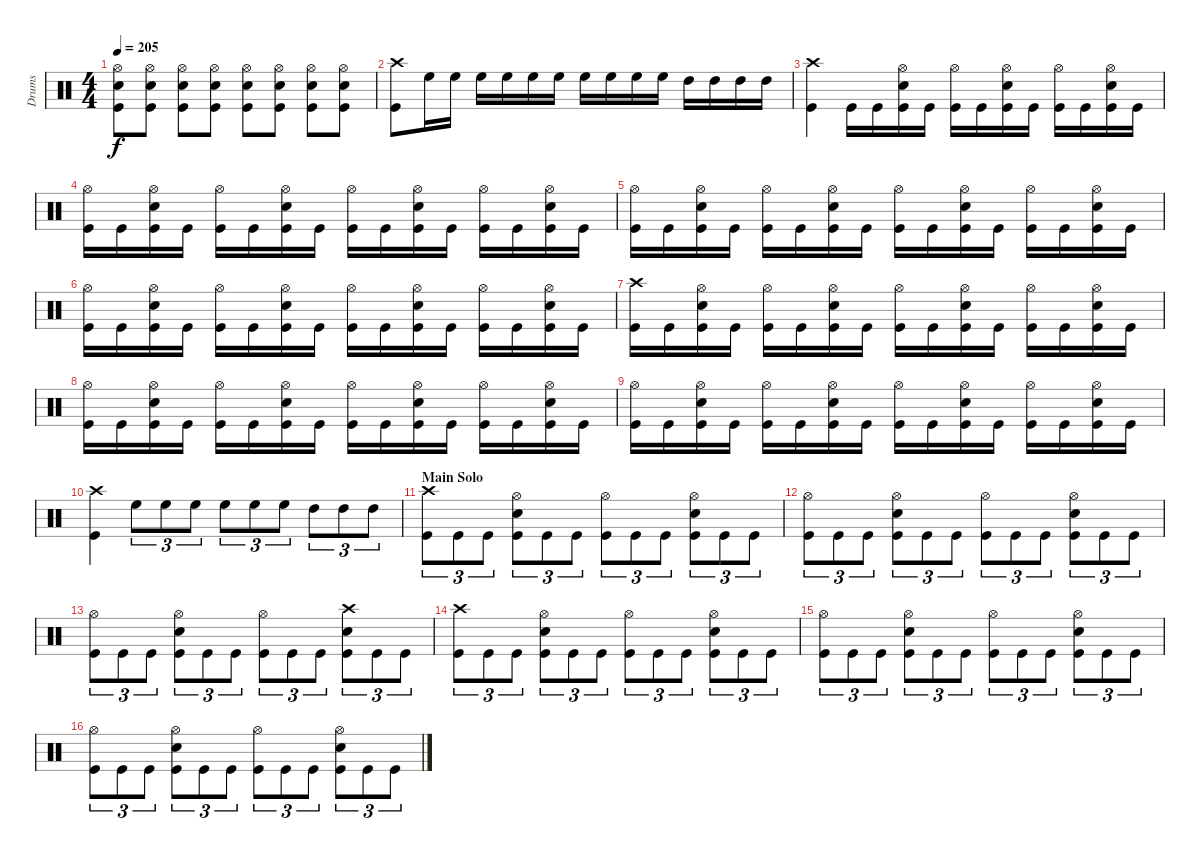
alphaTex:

\track ("Drums" "Drums") {instrument percussion}
\staff {score}
\articulation defaults
\ts (4 4)
\tempo 205
\clef neutral
\ks c
("Hi-Hat (open)" "Snare (hit) 2" "Kick (hit)").8{dy f} ("Hi-Hat (open)" "Snare (hit) 2" "Kick (hit)").8 ("Hi-Hat (open)" "Snare (hit) 2" "Kick (hit)").8 ("Hi-Hat (open)" "Snare (hit) 2" "Kick (hit)").8 ("Hi-Hat (open)" "Snare (hit) 2" "Kick (hit)").8 ("Hi-Hat (open)" "Snare (hit) 2" "Kick (hit)").8 ("Hi-Hat (open)" "Snare (hit) 2" "Kick (hit)").8 ("Hi-Hat (open)" "Snare (hit) 2" "Kick (hit)").8 |
("Crash high (hit)" "Kick (hit)").8 "High Floor Tom (hit)".16 "High Floor Tom (hit)".16 "High Floor Tom (hit)".16 "High Floor Tom (hit)".16 "High Floor Tom (hit)".16 "High Floor Tom (hit)".16 "High Floor Tom (hit)".16 "High Floor Tom (hit)".16 "High Floor Tom (hit)".16 "High Floor Tom (hit)".16 "High Tom (hit)".16 "High Tom (hit)".16 "High Tom (hit)".16 "High Tom (hit)".16 |
("Crash high (hit)" "Kick (hit)").4 "Kick (hit)".16 "Kick (hit)".16 ("Hi-Hat (open)" "Snare (hit) 2" "Kick (hit)").16 "Kick (hit)".16 ("Hi-Hat (open)" "Kick (hit)").16 "Kick (hit)".16 ("Hi-Hat (open)" "Snare (hit) 2" "Kick (hit)").16 "Kick (hit)".16 ("Hi-Hat (open)" "Kick (hit)").16 "Kick (hit)".16 ("Hi-Hat (open)" "Snare (hit) 2" "Kick (hit)").16 "Kick (hit)".16 |
("Hi-Hat (open)" "Kick (hit)").16 "Kick (hit)".16 ("Hi-Hat (open)" "Snare (hit) 2" "Kick (hit)").16 "Kick (hit)".16 ("Hi-Hat (open)" "Kick (hit)").16 "Kick (hit)".16 ("Hi-Hat (open)" "Snare (hit) 2" "Kick (hit)").16 "Kick (hit)".16 ("Hi-Hat (open)" "Kick (hit)").16 "Kick (hit)".16 ("Hi-Hat (open)" "Snare (hit) 2" "Kick (hit)").16 "Kick (hit)".16 ("Hi-Hat (open)" "Kick (hit)").16 "Kick (hit)".16 ("Hi-Hat (open)" "Snare (hit) 2" "Kick (hit)").16 "Kick (hit)".16 |
("Hi-Hat (open)" "Kick (hit)").16 "Kick (hit)".16 ("Hi-Hat (open)" "Snare (hit) 2" "Kick (hit)").16 "Kick (hit)".16 ("Hi-Hat (open)" "Kick (hit)").16 "Kick (hit)".16 ("Hi-Hat (open)" "Snare (hit) 2" "Kick (hit)").16 "Kick (hit)".16 ("Hi-Hat (open)" "Kick (hit)").16 "Kick (hit)".16 ("Hi-Hat (open)" "Snare (hit) 2" "Kick (hit)").16 "Kick (hit)".16 ("Hi-Hat (open)" "Kick (hit)").16 "Kick (hit)".16 ("Hi-Hat (open)" "Snare (hit) 2" "Kick (hit)").16 "Kick (hit)".16 |
("Hi-Hat (open)" "Kick (hit)").16 "Kick (hit)".16 ("Hi-Hat (open)" "Snare (hit) 2" "Kick (hit)").16 "Kick (hit)".16 ("Hi-Hat (open)" "Kick (hit)").16 "Kick (hit)".16 ("Hi-Hat (open)" "Snare (hit) 2" "Kick (hit)").16 "Kick (hit)".16 ("Hi-Hat (open)" "Kick (hit)").16 "Kick (hit)".16 ("Hi-Hat (open)" "Snare (hit) 2" "Kick (hit)").16 "Kick (hit)".16 ("Hi-Hat (open)" "Kick (hit)").16 "Kick (hit)".16 ("Hi-Hat (open)" "Snare (hit) 2" "Kick (hit)").16 "Kick (hit)".16 |
("Crash high (hit)" "Kick (hit)").16 "Kick (hit)".16 ("Hi-Hat (open)" "Snare (hit) 2" "Kick (hit)").16 "Kick (hit)".16 ("Hi-Hat (open)" "Kick (hit)").16 "Kick (hit)".16 ("Hi-Hat (open)" "Snare (hit) 2" "Kick (hit)").16 "Kick (hit)".16 ("Hi-Hat (open)" "Kick (hit)").16 "Kick (hit)".16 ("Hi-Hat (open)" "Snare (hit) 2" "Kick (hit)").16 "Kick (hit)".16 ("Hi-Hat (open)" "Kick (hit)").16 "Kick (hit)".16 ("Hi-Hat (open)" "Snare (hit) 2" "Kick (hit)").16 "Kick (hit)".16 |
("Hi-Hat (open)" "Kick (hit)").16 "Kick (hit)".16 ("Hi-Hat (open)" "Snare (hit) 2" "Kick (hit)").16 "Kick (hit)".16 ("Hi-Hat (open)" "Kick (hit)").16 "Kick (hit)".16 ("Hi-Hat (open)" "Snare (hit) 2" "Kick (hit)").16 "Kick (hit)".16 ("Hi-Hat (open)" "Kick (hit)").16 "Kick (hit)".16 ("Hi-Hat (open)" "Snare (hit) 2" "Kick (hit)").16 "Kick (hit)".16 ("Hi-Hat (open)" "Kick (hit)").16 "Kick (hit)".16 ("Hi-Hat (open)" "Snare (hit) 2" "Kick (hit)").16 "Kick (hit)".16 |
("Hi-Hat (open)" "Kick (hit)").16 "Kick (hit)".16 ("Hi-Hat (open)" "Snare (hit) 2" "Kick (hit)").16 "Kick (hit)".16 ("Hi-Hat (open)" "Kick (hit)").16 "Kick (hit)".16 ("Hi-Hat (open)" "Snare (hit) 2" "Kick (hit)").16 "Kick (hit)".16 ("Hi-Hat (open)" "Kick (hit)").16 "Kick (hit)".16 ("Hi-Hat (open)" "Snare (hit) 2" "Kick (hit)").16 "Kick (hit)".16 ("Hi-Hat (open)" "Kick (hit)").16 "Kick (hit)".16 ("Hi-Hat (open)" "Snare (hit) 2" "Kick (hit)").16 "Kick (hit)".16 |
("Crash high (hit)" "Kick (hit)").4 "High Floor Tom (hit)".8{tu (3 2)} "High Floor Tom (hit)".8{tu (3 2)} "High Floor Tom (hit)".8{tu (3 2)} "High Floor Tom (hit)".8{tu (3 2)} "High Floor Tom (hit)".8{tu (3 2)} "High Floor Tom (hit)".8{tu (3 2)} "High Tom (hit)".8{tu (3 2)} "High Tom (hit)".8{tu (3 2)} "High Tom (hit)".8{tu (3 2)} |
\section ("" "Main Solo")
("Crash high (hit)" "Kick (hit)").8{tu (3 2)} "Kick (hit)".8{tu (3 2)} "Kick (hit)".8{tu (3 2)} ("Hi-Hat (open)" "Snare (hit) 2" "Kick (hit)").8{tu (3 2)} "Kick (hit)".8{tu (3 2)} "Kick (hit)".8{tu (3 2)} ("Hi-Hat (open)" "Kick (hit)").8{tu (3 2)} "Kick (hit)".8{tu (3 2)} "Kick (hit)".8{tu (3 2)} ("Hi-Hat (open)" "Snare (hit) 2" "Kick (hit)").8{tu (3 2)} "Kick (hit)".8{tu (3 2)} "Kick (hit)".8{tu (3 2)} |
("Hi-Hat (open)" "Kick (hit)").8{tu (3 2)} "Kick (hit)".8{tu (3 2)} "Kick (hit)".8{tu (3 2)} ("Hi-Hat (open)" "Snare (hit) 2" "Kick (hit)").8{tu (3 2)} "Kick (hit)".8{tu (3 2)} "Kick (hit)".8{tu (3 2)} ("Hi-Hat (open)" "Kick (hit)").8{tu (3 2)} "Kick (hit)".8{tu (3 2)} "Kick (hit)".8{tu (3 2)} ("Hi-Hat (open)" "Snare (hit) 2" "Kick (hit)").8{tu (3 2)} "Kick (hit)".8{tu (3 2)} "Kick (hit)".8{tu (3 2)} |
("Hi-Hat (open)" "Kick (hit)").8{tu (3 2)} "Kick (hit)".8{tu (3 2)} "Kick (hit)".8{tu (3 2)} ("Hi-Hat (open)" "Snare (hit) 2" "Kick (hit)").8{tu (3 2)} "Kick (hit)".8{tu (3 2)} "Kick (hit)".8{tu (3 2)} ("Hi-Hat (open)" "Kick (hit)").8{tu (3 2)} "Kick (hit)".8{tu (3 2)} "Kick (hit)".8{tu (3 2)} ("Crash high (hit)" "Snare (hit) 2" "Kick (hit)").8{tu (3 2)} "Kick (hit)".8{tu (3 2)} "Kick (hit)".8{tu (3 2)} |
("Crash high (hit)" "Kick (hit)").8{tu (3 2)} "Kick (hit)".8{tu (3 2)} "Kick (hit)".8{tu (3 2)} ("Hi-Hat (open)" "Snare (hit) 2" "Kick (hit)").8{tu (3 2)} "Kick (hit)".8{tu (3 2)} "Kick (hit)".8{tu (3 2)} ("Hi-Hat (open)" "Kick (hit)").8{tu (3 2)} "Kick (hit)".8{tu (3 2)} "Kick (hit)".8{tu (3 2)} ("Hi-Hat (open)" "Snare (hit) 2" "Kick (hit)").8{tu (3 2)} "Kick (hit)".8{tu (3 2)} "Kick (hit)".8{tu (3 2)} |
("Hi-Hat (open)" "Kick (hit)").8{tu (3 2)} "Kick (hit)".8{tu (3 2)} "Kick (hit)".8{tu (3 2)} ("Hi-Hat (open)" "Snare (hit) 2" "Kick (hit)").8{tu (3 2)} "Kick (hit)".8{tu (3 2)} "Kick (hit)".8{tu (3 2)} ("Hi-Hat (open)" "Kick (hit)").8{tu (3 2)} "Kick (hit)".8{tu (3 2)} "Kick (hit)".8{tu (3 2)} ("Hi-Hat (open)" "Snare (hit) 2" "Kick (hit)").8{tu (3 2)} "Kick (hit)".8{tu (3 2)} "Kick (hit)".8{tu (3 2)} |
("Hi-Hat (open)" "Kick (hit)").8{tu (3 2)} "Kick (hit)".8{tu (3 2)} "Kick (hit)".8{tu (3 2)} ("Hi-Hat (open)" "Snare (hit) 2" "Kick (hit)").8{tu (3 2)} "Kick (hit)".8{tu (3 2)} "Kick (hit)".8{tu (3 2)} ("Hi-Hat (open)" "Kick (hit)").8{tu (3 2)} "Kick (hit)".8{tu (3 2)} "Kick (hit)".8{tu (3 2)} ("Hi-Hat (open)" "Snare (hit) 2" "Kick (hit)").8{tu (3 2)} "Kick (hit)".8{tu (3 2)} "Kick (hit)".8{tu (3 2)}
